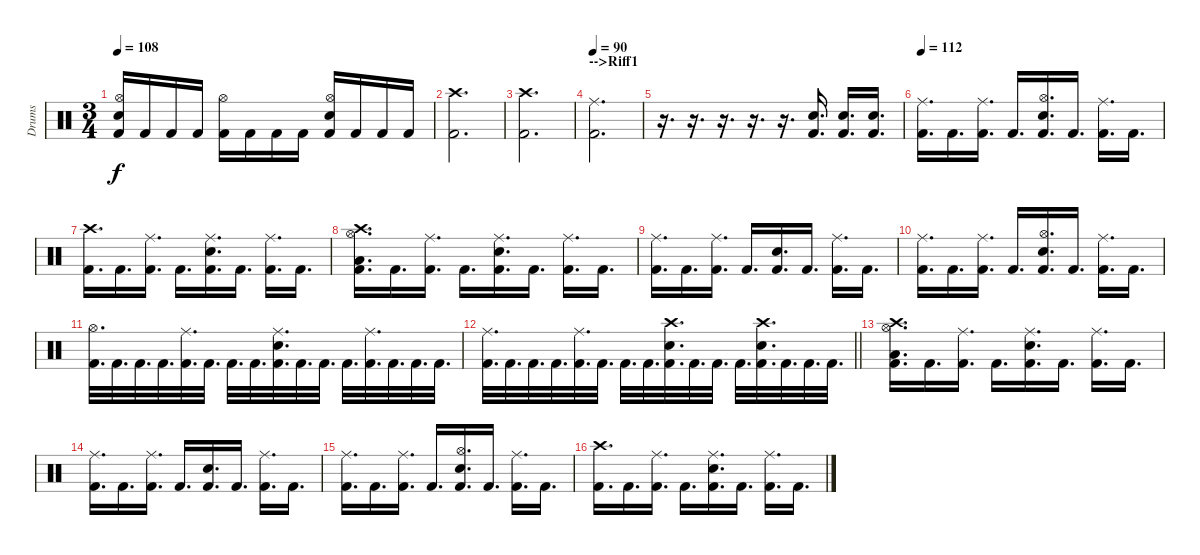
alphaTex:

\track ("Drums" "Drums") {instrument percussion}
\staff {score}
\articulation defaults
\ts (3 4)
\tempo 108
\clef neutral
\ks c
("Snare (hit) 2" "Hi-Hat (open)" "Kick (hit) 2").16{dy f} "Kick (hit) 2".16 "Kick (hit) 2".16 "Kick (hit) 2".16 ("Hi-Hat (open)" "Kick (hit) 2").16 "Kick (hit) 2".16 "Kick (hit) 2".16 "Kick (hit) 2".16 ("Snare (hit) 2" "Hi-Hat (open)" "Kick (hit) 2").16 "Kick (hit) 2".16 "Kick (hit) 2".16 "Kick (hit) 2".16 |
("Crash high (hit)" "Kick (hit) 2").2{d} |
("Crash high (hit)" "Kick (hit) 2").2{d} |
\section ("" "-->Riff1")
\tempo 90
("Ride (middle)" "Kick (hit) 2").2{d} |
r.16{d} r.16{d} r.16{d} r.16{d} r.16{d} ("Snare (hit) 2" "Kick (hit) 2").16{d} ("Snare (hit) 2" "Kick (hit) 2").16{d} ("Snare (hit) 2" "Kick (hit) 2").16{d} |
\tempo 112
("Ride (middle)" "Kick (hit) 2").16{d} "Kick (hit) 2".16{d} ("Ride (middle)" "Kick (hit) 2").16{d} "Kick (hit) 2".16{d} ("Hi-Hat (open)" "Kick (hit) 2" "Snare (hit) 2").16{d} "Kick (hit) 2".16{d} ("Ride (middle)" "Kick (hit) 2").16{d} "Kick (hit) 2".16{d} |
("Crash high (hit)" "Kick (hit) 2").16{d} "Kick (hit) 2".16{d} ("Ride (middle)" "Kick (hit) 2").16{d} "Kick (hit) 2".16{d} ("Ride (middle)" "Kick (hit) 2" "Snare (hit) 2").16{d} "Kick (hit) 2".16{d} ("Ride (middle)" "Kick (hit) 2").16{d} "Kick (hit) 2".16{d} |
("Crash high (hit)" "Low Floor Tom (hit)" "Kick (hit) 2" "Hi-Hat (open)").16{d} "Kick (hit) 2".16{d} ("Ride (middle)" "Kick (hit) 2").16{d} "Kick (hit) 2".16{d} ("Ride (middle)" "Kick (hit) 2" "Snare (hit) 2").16{d} "Kick (hit) 2".16{d} ("Ride (middle)" "Kick (hit) 2").16{d} "Kick (hit) 2".16{d} |
("Ride (middle)" "Kick (hit) 2").16{d} "Kick (hit) 2".16{d} ("Ride (middle)" "Kick (hit) 2").16{d} "Kick (hit) 2".16{d} ("Kick (hit) 2" "Snare (hit) 2").16{d} "Kick (hit) 2".16{d} ("Ride (middle)" "Kick (hit) 2").16{d} "Kick (hit) 2".16{d} |
("Ride (middle)" "Kick (hit) 2").16{d} "Kick (hit) 2".16{d} ("Ride (middle)" "Kick (hit) 2").16{d} "Kick (hit) 2".16{d} ("Hi-Hat (open)" "Kick (hit) 2" "Snare (hit) 2").16{d} "Kick (hit) 2".16{d} ("Ride (middle)" "Kick (hit) 2").16{d} "Kick (hit) 2".16{d} |
("Hi-Hat (open)" "Kick (hit) 2").32{d} "Kick (hit) 2".32{d} "Kick (hit) 2".32{d} "Kick (hit) 2".32{d} ("Ride (middle)" "Kick (hit) 2").32{d} "Kick (hit) 2".32{d} "Kick (hit) 2".32{d} "Kick (hit) 2".32{d} ("Ride (middle)" "Kick (hit) 2" "Snare (hit) 2").32{d} "Kick (hit) 2".32{d} "Kick (hit) 2".32{d} "Kick (hit) 2".32{d} ("Ride (middle)" "Kick (hit) 2").32{d} "Kick (hit) 2".32{d} "Kick (hit) 2".32{d} "Kick (hit) 2".32{d} |
\barLineRight lightlight
("Ride (middle)" "Kick (hit) 2").32{d} "Kick (hit) 2".32{d} "Kick (hit) 2".32{d} "Kick (hit) 2".32{d} ("Ride (middle)" "Kick (hit) 2").32{d} "Kick (hit) 2".32{d} "Kick (hit) 2".32{d} "Kick (hit) 2".32{d} ("Crash high (hit)" "Kick (hit) 2" "Snare (hit) 2").32{d} "Kick (hit) 2".32{d} "Kick (hit) 2".32{d} "Kick (hit) 2".32{d} ("Crash high (hit)" "Kick (hit) 2" "Snare (hit) 2").32{d} "Kick (hit) 2".32{d} "Kick (hit) 2".32{d} "Kick (hit) 2".32{d} |
("Crash high (hit)" "Low Floor Tom (hit)" "Kick (hit) 2" "Hi-Hat (open)").16{d} "Kick (hit) 2".16{d} ("Ride (middle)" "Kick (hit) 2").16{d} "Kick (hit) 2".16{d} ("Ride (middle)" "Kick (hit) 2" "Snare (hit) 2").16{d} "Kick (hit) 2".16{d} ("Ride (middle)" "Kick (hit) 2").16{d} "Kick (hit) 2".16{d} |
("Ride (middle)" "Kick (hit) 2").16{d} "Kick (hit) 2".16{d} ("Ride (middle)" "Kick (hit) 2").16{d} "Kick (hit) 2".16{d} ("Kick (hit) 2" "Snare (hit) 2").16{d} "Kick (hit) 2".16{d} ("Ride (middle)" "Kick (hit) 2").16{d} "Kick (hit) 2".16{d} |
("Ride (middle)" "Kick (hit) 2").16{d} "Kick (hit) 2".16{d} ("Ride (middle)" "Kick (hit) 2").16{d} "Kick (hit) 2".16{d} ("Hi-Hat (open)" "Kick (hit) 2" "Snare (hit) 2").16{d} "Kick (hit) 2".16{d} ("Ride (middle)" "Kick (hit) 2").16{d} "Kick (hit) 2".16{d} |
("Crash high (hit)" "Kick (hit) 2").16{d} "Kick (hit) 2".16{d} ("Ride (middle)" "Kick (hit) 2").16{d} "Kick (hit) 2".16{d} ("Ride (middle)" "Kick (hit) 2" "Snare (hit) 2").16{d} "Kick (hit) 2".16{d} ("Ride (middle)" "Kick (hit) 2").16{d} "Kick (hit) 2".16{d}
